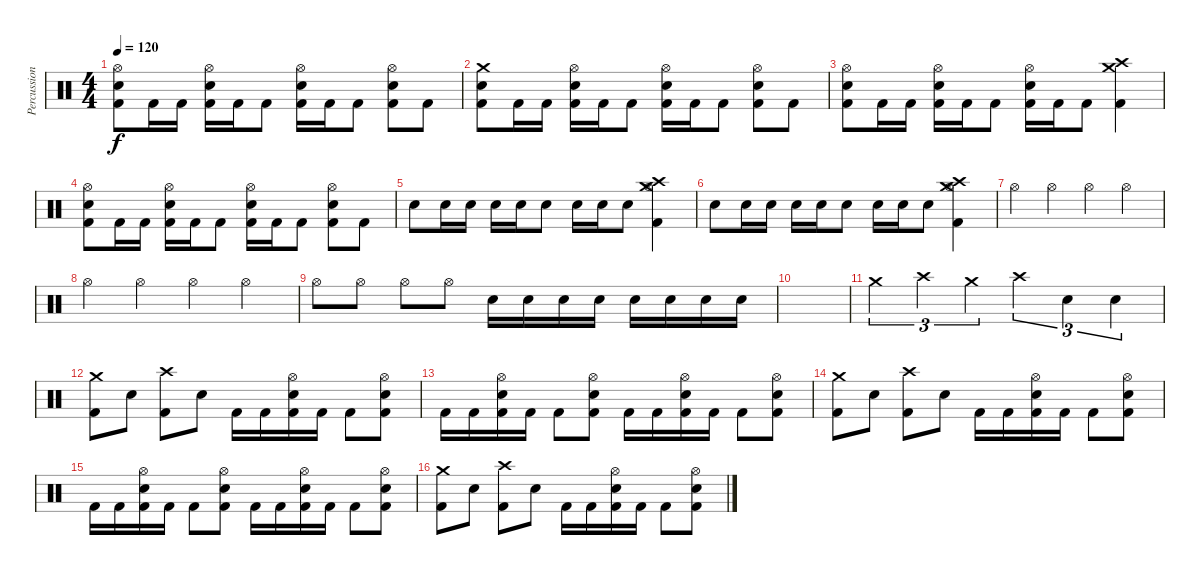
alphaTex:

\track ("Percussion" "Percussion") {instrument percussion}
\staff {score}
\articulation defaults
\ts (4 4)
\tempo 120
\clef neutral
\ks c
("Kick (hit) 2" "Snare (hit) 2" "Hi-Hat (open)").8{dy f} "Kick (hit) 2".16 "Kick (hit) 2".16 ("Kick (hit) 2" "Snare (hit) 2" "Hi-Hat (open)").16 "Kick (hit) 2".16 "Kick (hit) 2".8 ("Kick (hit) 2" "Snare (hit) 2" "Hi-Hat (open)").16 "Kick (hit) 2".16 "Kick (hit) 2".8 ("Kick (hit) 2" "Snare (hit) 2" "Hi-Hat (open)").8 "Kick (hit) 2".8 |
("Kick (hit) 2" "Snare (hit) 2" "Crash medium (hit)").8 "Kick (hit) 2".16 "Kick (hit) 2".16 ("Kick (hit) 2" "Snare (hit) 2" "Hi-Hat (open)").16 "Kick (hit) 2".16 "Kick (hit) 2".8 ("Kick (hit) 2" "Snare (hit) 2" "Hi-Hat (open)").16 "Kick (hit) 2".16 "Kick (hit) 2".8 ("Kick (hit) 2" "Snare (hit) 2" "Hi-Hat (open)").8 "Kick (hit) 2".8 |
("Kick (hit) 2" "Snare (hit) 2" "Hi-Hat (open)").8 "Kick (hit) 2".16 "Kick (hit) 2".16 ("Kick (hit) 2" "Snare (hit) 2" "Hi-Hat (open)").16 "Kick (hit) 2".16 "Kick (hit) 2".8 ("Kick (hit) 2" "Snare (hit) 2" "Hi-Hat (open)").16 "Kick (hit) 2".16 "Kick (hit) 2".8 ("Kick (hit) 2" "Crash high (hit)" "Crash medium (hit)").4 |
("Kick (hit) 2" "Snare (hit) 2" "Hi-Hat (open)").8 "Kick (hit) 2".16 "Kick (hit) 2".16 ("Kick (hit) 2" "Snare (hit) 2" "Hi-Hat (open)").16 "Kick (hit) 2".16 "Kick (hit) 2".8 ("Kick (hit) 2" "Snare (hit) 2" "Hi-Hat (open)").16 "Kick (hit) 2".16 "Kick (hit) 2".8 ("Kick (hit) 2" "Snare (hit) 2" "Hi-Hat (open)").8 "Kick (hit) 2".8 |
"Snare (hit) 2".8 "Snare (hit) 2".16 "Snare (hit) 2".16 "Snare (hit) 2".16 "Snare (hit) 2".16 "Snare (hit) 2".8 "Snare (hit) 2".16 "Snare (hit) 2".16 "Snare (hit) 2".8 ("Hi-Hat (open)" "Kick (hit) 2" "Crash medium (hit)" "Crash high (hit)").4 |
"Snare (hit) 2".8 "Snare (hit) 2".16 "Snare (hit) 2".16 "Snare (hit) 2".16 "Snare (hit) 2".16 "Snare (hit) 2".8 "Snare (hit) 2".16 "Snare (hit) 2".16 "Snare (hit) 2".8 ("Hi-Hat (open)" "Kick (hit) 2" "Crash medium (hit)" "Crash high (hit)").4 |
"Hi-Hat (open)".4 "Hi-Hat (open)".4 "Hi-Hat (open)".4 "Hi-Hat (open)".4 |
"Hi-Hat (open)".4 "Hi-Hat (open)".4 "Hi-Hat (open)".4 "Hi-Hat (open)".4 |
"Hi-Hat (open)".8 "Hi-Hat (open)".8 "Hi-Hat (open)".8 "Hi-Hat (open)".8 "Snare (hit) 2".16 "Snare (hit) 2".16 "Snare (hit) 2".16 "Snare (hit) 2".16 "Snare (hit) 2".16 "Snare (hit) 2".16 "Snare (hit) 2".16 "Snare (hit) 2".16 |
|
"Crash medium (hit)".4{tu (3 2)} "Crash high (hit)".4{tu (3 2)} "Crash medium (hit)".4{tu (3 2)} "Crash high (hit)".4{tu (3 2)} "Snare (hit) 2".4{tu (3 2)} "Snare (hit) 2".4{tu (3 2)} |
("Kick (hit) 2" "Crash medium (hit)").8 "Snare (hit) 2".8 ("Kick (hit) 2" "Crash high (hit)").8 "Snare (hit) 2".8 "Kick (hit) 2".16 "Kick (hit) 2".16 ("Snare (hit) 2" "Hi-Hat (open)" "Kick (hit) 2").16 "Kick (hit) 2".16 "Kick (hit) 2".8 ("Snare (hit) 2" "Hi-Hat (open)" "Kick (hit) 2").8 |
"Kick (hit) 2".16 "Kick (hit) 2".16 ("Hi-Hat (open)" "Snare (hit) 2" "Kick (hit) 2").16 "Kick (hit) 2".16 "Kick (hit) 2".8 ("Hi-Hat (open)" "Snare (hit) 2" "Kick (hit) 2").8 "Kick (hit) 2".16 "Kick (hit) 2".16 ("Hi-Hat (open)" "Snare (hit) 2" "Kick (hit) 2").16 "Kick (hit) 2".16 "Kick (hit) 2".8 ("Hi-Hat (open)" "Snare (hit) 2" "Kick (hit) 2").8 |
("Kick (hit) 2" "Crash medium (hit)").8 "Snare (hit) 2".8 ("Kick (hit) 2" "Crash high (hit)").8 "Snare (hit) 2".8 "Kick (hit) 2".16 "Kick (hit) 2".16 ("Snare (hit) 2" "Hi-Hat (open)" "Kick (hit) 2").16 "Kick (hit) 2".16 "Kick (hit) 2".8 ("Snare (hit) 2" "Hi-Hat (open)" "Kick (hit) 2").8 |
"Kick (hit) 2".16 "Kick (hit) 2".16 ("Hi-Hat (open)" "Snare (hit) 2" "Kick (hit) 2").16 "Kick (hit) 2".16 "Kick (hit) 2".8 ("Hi-Hat (open)" "Snare (hit) 2" "Kick (hit) 2").8 "Kick (hit) 2".16 "Kick (hit) 2".16 ("Hi-Hat (open)" "Snare (hit) 2" "Kick (hit) 2").16 "Kick (hit) 2".16 "Kick (hit) 2".8 ("Hi-Hat (open)" "Snare (hit) 2" "Kick (hit) 2").8 |
("Kick (hit) 2" "Crash medium (hit)").8 "Snare (hit) 2".8 ("Kick (hit) 2" "Crash high (hit)").8 "Snare (hit) 2".8 "Kick (hit) 2".16 "Kick (hit) 2".16 ("Snare (hit) 2" "Hi-Hat (open)" "Kick (hit) 2").16 "Kick (hit) 2".16 "Kick (hit) 2".8 ("Snare (hit) 2" "Hi-Hat (open)" "Kick (hit) 2").8
